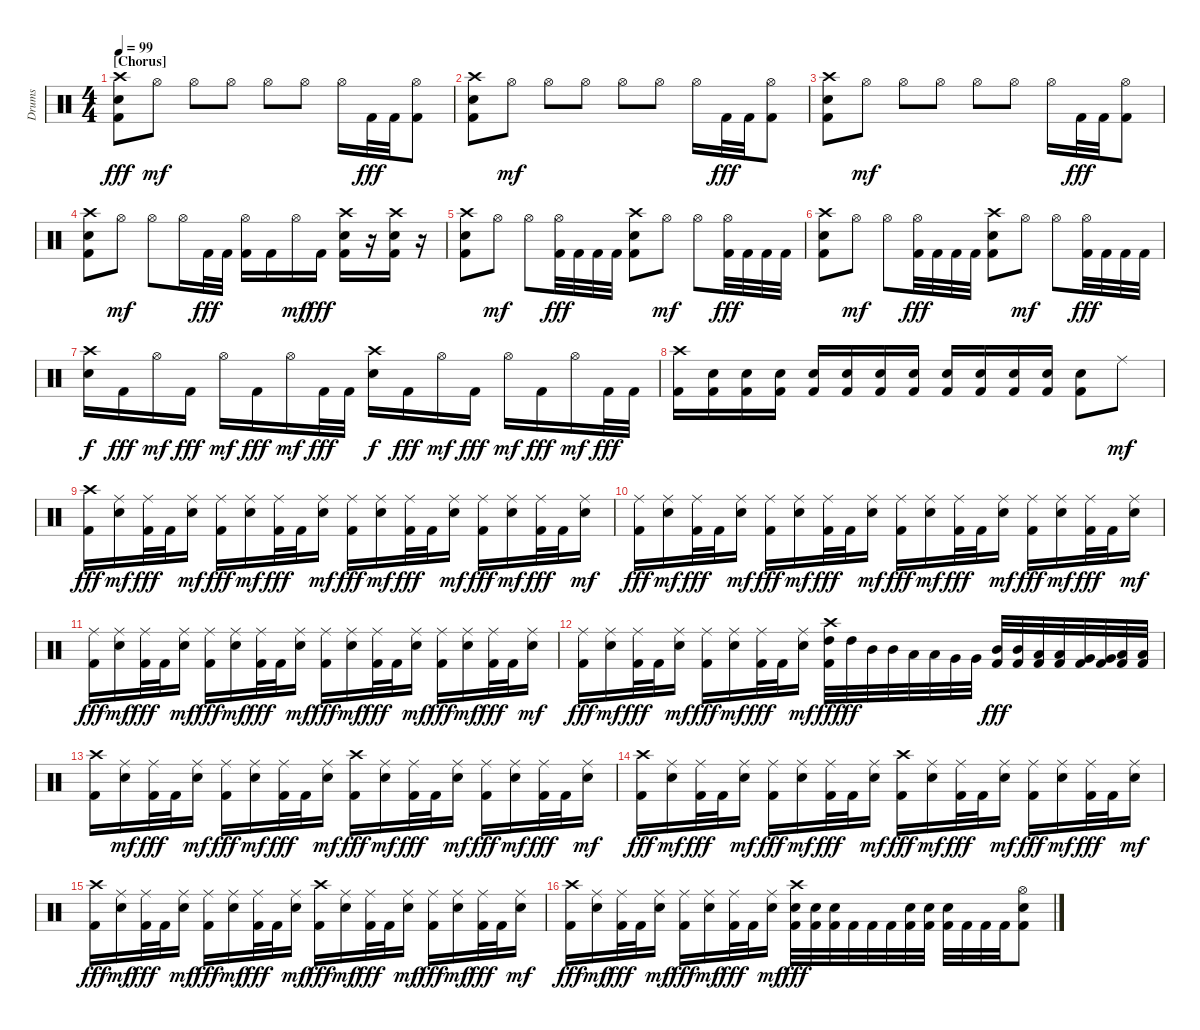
\track ("Drums" "Drums") {instrument percussion}
\staff {score}
\articulation defaults
\ts (4 4)
\section ("" "[Chorus]")
\tempo 99
\clef neutral
\ks c
("Crash high (hit)" "Snare (hit) 2" "Kick (hit) 2").8{dy fff} "Hi-Hat (open)".8{dy mf} "Hi-Hat (open)".8 "Hi-Hat (open)".8 "Hi-Hat (open)".8 "Hi-Hat (open)".8 "Hi-Hat (open)".16 "Kick (hit) 2".32{dy fff} "Kick (hit) 2".32 ("Hi-Hat (open)" "Kick (hit) 2").8 |
("Crash high (hit)" "Snare (hit) 2" "Kick (hit) 2").8 "Hi-Hat (open)".8{dy mf} "Hi-Hat (open)".8 "Hi-Hat (open)".8 "Hi-Hat (open)".8 "Hi-Hat (open)".8 "Hi-Hat (open)".16 "Kick (hit) 2".32{dy fff} "Kick (hit) 2".32 ("Hi-Hat (open)" "Kick (hit) 2").8 |
("Crash high (hit)" "Snare (hit) 2" "Kick (hit) 2").8 "Hi-Hat (open)".8{dy mf} "Hi-Hat (open)".8 "Hi-Hat (open)".8 "Hi-Hat (open)".8 "Hi-Hat (open)".8 "Hi-Hat (open)".16 "Kick (hit) 2".32{dy fff} "Kick (hit) 2".32 ("Hi-Hat (open)" "Kick (hit) 2").8 |
("Crash high (hit)" "Snare (hit) 2" "Kick (hit) 2").8 "Hi-Hat (open)".8{dy mf} "Hi-Hat (open)".8 "Hi-Hat (open)".16 "Kick (hit) 2".32{dy fff} "Kick (hit) 2".32 ("Hi-Hat (open)" "Kick (hit) 2").16 "Kick (hit) 2".16 "Hi-Hat (open)".16{dy mf} "Kick (hit) 2".16{dy fff} ("Crash high (hit)" "Snare (hit) 2" "Kick (hit) 2").16 r.16 ("Crash high (hit)" "Snare (hit) 2" "Kick (hit) 2").16 r.16 |
("Crash high (hit)" "Snare (hit) 2" "Kick (hit) 2").8 "Hi-Hat (open)".8{dy mf} "Hi-Hat (open)".8 ("Hi-Hat (open)" "Kick (hit) 2").32{dy fff} "Kick (hit) 2".32 "Kick (hit) 2".32 "Kick (hit) 2".32 ("Crash high (hit)" "Snare (hit) 2" "Kick (hit) 2").8 "Hi-Hat (open)".8{dy mf} "Hi-Hat (open)".8 ("Hi-Hat (open)" "Kick (hit) 2").32{dy fff} "Kick (hit) 2".32 "Kick (hit) 2".32 "Kick (hit) 2".32 |
("Crash high (hit)" "Snare (hit) 2" "Kick (hit) 2").8 "Hi-Hat (open)".8{dy mf} "Hi-Hat (open)".8 ("Hi-Hat (open)" "Kick (hit) 2").32{dy fff} "Kick (hit) 2".32 "Kick (hit) 2".32 "Kick (hit) 2".32 ("Crash high (hit)" "Snare (hit) 2" "Kick (hit) 2").8 "Hi-Hat (open)".8{dy mf} "Hi-Hat (open)".8 ("Hi-Hat (open)" "Kick (hit) 2").32{dy fff} "Kick (hit) 2".32 "Kick (hit) 2".32 "Kick (hit) 2".32 |
("Crash high (hit)" "Snare (hit) 2").16{dy f} "Kick (hit) 2".16{dy fff} "Hi-Hat (open)".16{dy mf} "Kick (hit) 2".16{dy fff} "Hi-Hat (open)".16{dy mf} "Kick (hit) 2".16{dy fff} "Hi-Hat (open)".16{dy mf} "Kick (hit) 2".32{dy fff} "Kick (hit) 2".32 ("Crash high (hit)" "Snare (hit) 2").16{dy f} "Kick (hit) 2".16{dy fff} "Hi-Hat (open)".16{dy mf} "Kick (hit) 2".16{dy fff} "Hi-Hat (open)".16{dy mf} "Kick (hit) 2".16{dy fff} "Hi-Hat (open)".16{dy mf} "Kick (hit) 2".32{dy fff} "Kick (hit) 2".32 |
("Crash high (hit)" "Kick (hit) 2").16 ("Snare (hit) 2" "Kick (hit) 2").16 ("Snare (hit) 2" "Kick (hit) 2").16 ("Snare (hit) 2" "Kick (hit) 2").16 ("Snare (hit) 2" "Kick (hit) 2").16 ("Snare (hit) 2" "Kick (hit) 2").16 ("Snare (hit) 2" "Kick (hit) 2").16 ("Snare (hit) 2" "Kick (hit) 2").16 ("Snare (hit) 2" "Kick (hit) 2").16 ("Snare (hit) 2" "Kick (hit) 2").16 ("Snare (hit) 2" "Kick (hit) 2").16 ("Snare (hit) 2" "Kick (hit) 2").16 ("Snare (hit) 2" "Kick (hit) 2").8 "Ride (middle)".8{dy mf} |
\section ("" "")
("Crash high (hit)" "Kick (hit) 2").16{dy fff} ("Ride (middle)" "Snare (hit) 2").16{dy mf} ("Ride (middle)" "Kick (hit) 2").32{dy fff} "Kick (hit) 2".32 ("Ride (middle)" "Snare (hit) 2").16{dy mf} ("Ride (middle)" "Kick (hit) 2").16{dy fff} ("Ride (middle)" "Snare (hit) 2").16{dy mf} ("Ride (middle)" "Kick (hit) 2").32{dy fff} "Kick (hit) 2".32 ("Ride (middle)" "Snare (hit) 2").16{dy mf} ("Ride (middle)" "Kick (hit) 2").16{dy fff} ("Ride (middle)" "Snare (hit) 2").16{dy mf} ("Ride (middle)" "Kick (hit) 2").32{dy fff} "Kick (hit) 2".32 ("Ride (middle)" "Snare (hit) 2").16{dy mf} ("Ride (middle)" "Kick (hit) 2").16{dy fff} ("Ride (middle)" "Snare (hit) 2").16{dy mf} ("Ride (middle)" "Kick (hit) 2").32{dy fff} "Kick (hit) 2".32 ("Ride (middle)" "Snare (hit) 2").16{dy mf} |
("Ride (middle)" "Kick (hit) 2").16{dy fff} ("Ride (middle)" "Snare (hit) 2").16{dy mf} ("Ride (middle)" "Kick (hit) 2").32{dy fff} "Kick (hit) 2".32 ("Ride (middle)" "Snare (hit) 2").16{dy mf} ("Ride (middle)" "Kick (hit) 2").16{dy fff} ("Ride (middle)" "Snare (hit) 2").16{dy mf} ("Ride (middle)" "Kick (hit) 2").32{dy fff} "Kick (hit) 2".32 ("Ride (middle)" "Snare (hit) 2").16{dy mf} ("Ride (middle)" "Kick (hit) 2").16{dy fff} ("Ride (middle)" "Snare (hit) 2").16{dy mf} ("Ride (middle)" "Kick (hit) 2").32{dy fff} "Kick (hit) 2".32 ("Ride (middle)" "Snare (hit) 2").16{dy mf} ("Ride (middle)" "Kick (hit) 2").16{dy fff} ("Ride (middle)" "Snare (hit) 2").16{dy mf} ("Ride (middle)" "Kick (hit) 2").32{dy fff} "Kick (hit) 2".32 ("Ride (middle)" "Snare (hit) 2").16{dy mf} |
("Ride (middle)" "Kick (hit) 2").16{dy fff} ("Ride (middle)" "Snare (hit) 2").16{dy mf} ("Ride (middle)" "Kick (hit) 2").32{dy fff} "Kick (hit) 2".32 ("Ride (middle)" "Snare (hit) 2").16{dy mf} ("Ride (middle)" "Kick (hit) 2").16{dy fff} ("Ride (middle)" "Snare (hit) 2").16{dy mf} ("Ride (middle)" "Kick (hit) 2").32{dy fff} "Kick (hit) 2".32 ("Ride (middle)" "Snare (hit) 2").16{dy mf} ("Ride (middle)" "Kick (hit) 2").16{dy fff} ("Ride (middle)" "Snare (hit) 2").16{dy mf} ("Ride (middle)" "Kick (hit) 2").32{dy fff} "Kick (hit) 2".32 ("Ride (middle)" "Snare (hit) 2").16{dy mf} ("Ride (middle)" "Kick (hit) 2").16{dy fff} ("Ride (middle)" "Snare (hit) 2").16{dy mf} ("Ride (middle)" "Kick (hit) 2").32{dy fff} "Kick (hit) 2".32 ("Ride (middle)" "Snare (hit) 2").16{dy mf} |
("Ride (middle)" "Kick (hit) 2").16{dy fff} ("Ride (middle)" "Snare (hit) 2").16{dy mf} ("Ride (middle)" "Kick (hit) 2").32{dy fff} "Kick (hit) 2".32 ("Ride (middle)" "Snare (hit) 2").16{dy mf} ("Ride (middle)" "Kick (hit) 2").16{dy fff} ("Ride (middle)" "Snare (hit) 2").16{dy mf} ("Ride (middle)" "Kick (hit) 2").32{dy fff} "Kick (hit) 2".32 ("Ride (middle)" "Snare (hit) 2").16{dy mf} ("Crash high (hit)" "High Tom (hit)" "Kick (hit) 2").32{dy fff} "High Tom (hit)".32{dy ff} "Mid Tom (hit)".32 "Mid Tom (hit)".32 "Low Tom (hit)".32 "Low Tom (hit)".32 "Very Low Tom (hit)".32 "Very Low Tom (hit)".32 ("Mid Tom (hit)" "Kick (hit) 2").32{dy fff} ("Mid Tom (hit)" "Kick (hit) 2").32 ("Low Tom (hit)" "Kick (hit) 2").32 ("Low Tom (hit)" "Kick (hit) 2").32 ("Very Low Tom (hit)" "Kick (hit) 2").32 ("Very Low Tom (hit)" "Kick (hit) 2").32 ("Low Floor Tom (hit)" "Kick (hit) 2").32 ("Low Floor Tom (hit)" "Kick (hit) 2").32 |
\section ("" "")
("Crash high (hit)" "Kick (hit) 2").16 ("Ride (middle)" "Snare (hit) 2").16{dy mf} ("Ride (middle)" "Kick (hit) 2").32{dy fff} "Kick (hit) 2".32 ("Ride (middle)" "Snare (hit) 2").16{dy mf} ("Ride (middle)" "Kick (hit) 2").16{dy fff} ("Ride (middle)" "Snare (hit) 2").16{dy mf} ("Ride (middle)" "Kick (hit) 2").32{dy fff} "Kick (hit) 2".32 ("Ride (middle)" "Snare (hit) 2").16{dy mf} ("Crash high (hit)" "Kick (hit) 2").16{dy fff} ("Ride (middle)" "Snare (hit) 2").16{dy mf} ("Ride (middle)" "Kick (hit) 2").32{dy fff} "Kick (hit) 2".32 ("Ride (middle)" "Snare (hit) 2").16{dy mf} ("Ride (middle)" "Kick (hit) 2").16{dy fff} ("Ride (middle)" "Snare (hit) 2").16{dy mf} ("Ride (middle)" "Kick (hit) 2").32{dy fff} "Kick (hit) 2".32 ("Ride (middle)" "Snare (hit) 2").16{dy mf} |
("Crash high (hit)" "Kick (hit) 2").16{dy fff} ("Ride (middle)" "Snare (hit) 2").16{dy mf} ("Ride (middle)" "Kick (hit) 2").32{dy fff} "Kick (hit) 2".32 ("Ride (middle)" "Snare (hit) 2").16{dy mf} ("Ride (middle)" "Kick (hit) 2").16{dy fff} ("Ride (middle)" "Snare (hit) 2").16{dy mf} ("Ride (middle)" "Kick (hit) 2").32{dy fff} "Kick (hit) 2".32 ("Ride (middle)" "Snare (hit) 2").16{dy mf} ("Crash high (hit)" "Kick (hit) 2").16{dy fff} ("Ride (middle)" "Snare (hit) 2").16{dy mf} ("Ride (middle)" "Kick (hit) 2").32{dy fff} "Kick (hit) 2".32 ("Ride (middle)" "Snare (hit) 2").16{dy mf} ("Ride (middle)" "Kick (hit) 2").16{dy fff} ("Ride (middle)" "Snare (hit) 2").16{dy mf} ("Ride (middle)" "Kick (hit) 2").32{dy fff} "Kick (hit) 2".32 ("Ride (middle)" "Snare (hit) 2").16{dy mf} |
("Crash high (hit)" "Kick (hit) 2").16{dy fff} ("Ride (middle)" "Snare (hit) 2").16{dy mf} ("Ride (middle)" "Kick (hit) 2").32{dy fff} "Kick (hit) 2".32 ("Ride (middle)" "Snare (hit) 2").16{dy mf} ("Ride (middle)" "Kick (hit) 2").16{dy fff} ("Ride (middle)" "Snare (hit) 2").16{dy mf} ("Ride (middle)" "Kick (hit) 2").32{dy fff} "Kick (hit) 2".32 ("Ride (middle)" "Snare (hit) 2").16{dy mf} ("Crash high (hit)" "Kick (hit) 2").16{dy fff} ("Ride (middle)" "Snare (hit) 2").16{dy mf} ("Ride (middle)" "Kick (hit) 2").32{dy fff} "Kick (hit) 2".32 ("Ride (middle)" "Snare (hit) 2").16{dy mf} ("Ride (middle)" "Kick (hit) 2").16{dy fff} ("Ride (middle)" "Snare (hit) 2").16{dy mf} ("Ride (middle)" "Kick (hit) 2").32{dy fff} "Kick (hit) 2".32 ("Ride (middle)" "Snare (hit) 2").16{dy mf} |
("Crash high (hit)" "Kick (hit) 2").16{dy fff} ("Ride (middle)" "Snare (hit) 2").16{dy mf} ("Ride (middle)" "Kick (hit) 2").32{dy fff} "Kick (hit) 2".32 ("Ride (middle)" "Snare (hit) 2").16{dy mf} ("Ride (middle)" "Kick (hit) 2").16{dy fff} ("Ride (middle)" "Snare (hit) 2").16{dy mf} ("Ride (middle)" "Kick (hit) 2").32{dy fff} "Kick (hit) 2".32 ("Ride (middle)" "Snare (hit) 2").16{dy mf} ("Crash high (hit)" "Snare (hit) 2" "Kick (hit) 2").32{dy fff} ("Snare (hit) 2" "Kick (hit) 2").32 ("Snare (hit) 2" "Kick (hit) 2").32 "Kick (hit) 2".32 "Kick (hit) 2".32 "Kick (hit) 2".32 ("Snare (hit) 2" "Kick (hit) 2").32 ("Snare (hit) 2" "Kick (hit) 2").32 ("Snare (hit) 2" "Kick (hit) 2").32 "Kick (hit) 2".32 "Kick (hit) 2".32 "Kick (hit) 2".32 ("Hi-Hat (open)" "Snare (hit) 2" "Kick (hit) 2").8
